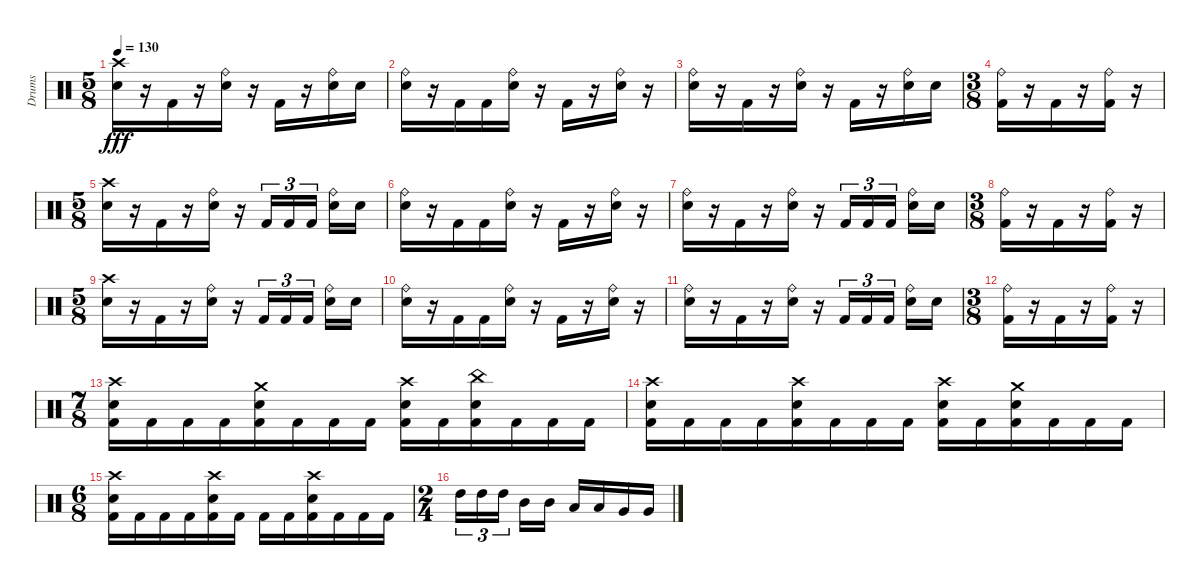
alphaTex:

\track ("Drums" "Drums") {instrument percussion}
\staff {score}
\articulation defaults
\ts (5 8)
\tempo 130
\clef neutral
\ks c
("Crash high (hit)" "Electric Snare (hit)").16{dy fff} r.16 "Kick (hit) 2".16 r.16 ("Ride (bell)" "Electric Snare (hit)").16 r.16 "Kick (hit) 2".16 r.16 ("Ride (bell)" "Electric Snare (hit)").16 "Electric Snare (hit)".16 |
("Ride (bell)" "Electric Snare (hit)").16 r.16 "Kick (hit) 2".16 "Kick (hit) 2".16 ("Ride (bell)" "Electric Snare (hit)").16 r.16 "Kick (hit) 2".16 r.16 ("Ride (bell)" "Electric Snare (hit)").16 r.16 |
("Ride (bell)" "Electric Snare (hit)").16 r.16 "Kick (hit) 2".16 r.16 ("Ride (bell)" "Electric Snare (hit)").16 r.16 "Kick (hit) 2".16 r.16 ("Ride (bell)" "Electric Snare (hit)").16 "Electric Snare (hit)".16 |
\ts (3 8)
("Ride (bell)" "Kick (hit) 2").16 r.16 "Kick (hit) 2".16 r.16 ("Ride (bell)" "Kick (hit) 2").16 r.16 |
\ts (5 8)
("Crash high (hit)" "Electric Snare (hit)").16 r.16 "Kick (hit) 2".16 r.16 ("Ride (bell)" "Electric Snare (hit)").16 r.16 "Kick (hit) 2".16{tu (3 2)} "Kick (hit) 2".16{tu (3 2)} "Kick (hit) 2".16{tu (3 2)} ("Ride (bell)" "Electric Snare (hit)").16 "Electric Snare (hit)".16 |
("Ride (bell)" "Electric Snare (hit)").16 r.16 "Kick (hit) 2".16 "Kick (hit) 2".16 ("Ride (bell)" "Electric Snare (hit)").16 r.16 "Kick (hit) 2".16 r.16 ("Ride (bell)" "Electric Snare (hit)").16 r.16 |
("Ride (bell)" "Electric Snare (hit)").16 r.16 "Kick (hit) 2".16 r.16 ("Ride (bell)" "Electric Snare (hit)").16 r.16 "Kick (hit) 2".16{tu (3 2)} "Kick (hit) 2".16{tu (3 2)} "Kick (hit) 2".16{tu (3 2)} ("Ride (bell)" "Electric Snare (hit)").16 "Electric Snare (hit)".16 |
\ts (3 8)
("Ride (bell)" "Kick (hit) 2").16 r.16 "Kick (hit) 2".16 r.16 ("Ride (bell)" "Kick (hit) 2").16 r.16 |
\ts (5 8)
("Electric Snare (hit)" "Crash high (hit)").16 r.16 "Kick (hit) 2".16 r.16 ("Electric Snare (hit)" "Ride (bell)").16 r.16 "Kick (hit) 2".16{tu (3 2)} "Kick (hit) 2".16{tu (3 2)} "Kick (hit) 2".16{tu (3 2)} ("Electric Snare (hit)" "Ride (bell)").16 "Electric Snare (hit)".16 |
("Electric Snare (hit)" "Ride (bell)").16 r.16 "Kick (hit) 2".16 "Kick (hit) 2".16 ("Electric Snare (hit)" "Ride (bell)").16 r.16 "Kick (hit) 2".16 r.16 ("Electric Snare (hit)" "Ride (bell)").16 r.16 |
("Electric Snare (hit)" "Ride (bell)").16 r.16 "Kick (hit) 2".16 r.16 ("Electric Snare (hit)" "Ride (bell)").16 r.16 "Kick (hit) 2".16{tu (3 2)} "Kick (hit) 2".16{tu (3 2)} "Kick (hit) 2".16{tu (3 2)} ("Electric Snare (hit)" "Ride (bell)").16 "Electric Snare (hit)".16 |
\ts (3 8)
("Kick (hit) 2" "Ride (bell)").16 r.16 "Kick (hit) 2".16 r.16 ("Kick (hit) 2" "Ride (bell)").16 r.16 |
\ts (7 8)
("Kick (hit) 2" "Crash high (hit)" "Electric Snare (hit)").16 "Kick (hit) 2".16 "Kick (hit) 2".16 "Kick (hit) 2".16 ("Kick (hit) 2" "Crash medium (hit)" "Electric Snare (hit)").16 "Kick (hit) 2".16 "Kick (hit) 2".16 "Kick (hit) 2".16 ("Electric Snare (hit)" "Kick (hit) 2" "Crash high (hit)").16 "Kick (hit) 2".16 ("Kick (hit) 2" "China (hit)" "Electric Snare (hit)").16 "Kick (hit) 2".16 "Kick (hit) 2".16 "Kick (hit) 2".16 |
("Kick (hit) 2" "Crash high (hit)" "Electric Snare (hit)").16 "Kick (hit) 2".16 "Kick (hit) 2".16 "Kick (hit) 2".16 ("Kick (hit) 2" "Crash high (hit)" "Electric Snare (hit)").16 "Kick (hit) 2".16 "Kick (hit) 2".16 "Kick (hit) 2".16 ("Kick (hit) 2" "Crash high (hit)" "Electric Snare (hit)").16 "Kick (hit) 2".16 ("Kick (hit) 2" "Crash medium (hit)" "Electric Snare (hit)").16 "Kick (hit) 2".16 "Kick (hit) 2".16 "Kick (hit) 2".16 |
\ts (6 8)
("Crash high (hit)" "Electric Snare (hit)" "Kick (hit) 2").16 "Kick (hit) 2".16 "Kick (hit) 2".16 "Kick (hit) 2".16 ("Crash high (hit)" "Electric Snare (hit)" "Kick (hit) 2").16 "Kick (hit) 2".16 "Kick (hit) 2".16 "Kick (hit) 2".16 ("Crash high (hit)" "Electric Snare (hit)" "Kick (hit) 2").16 "Kick (hit) 2".16 "Kick (hit) 2".16 "Kick (hit) 2".16 |
\ts (2 4)
"High Tom (hit)".16{tu (3 2)} "High Tom (hit)".16{tu (3 2)} "High Tom (hit)".16{tu (3 2)} "Mid Tom (hit)".16 "Mid Tom (hit)".16 "Low Tom (hit)".16 "Low Tom (hit)".16 "Very Low Tom (hit)".16 "Very Low Tom (hit)".16
